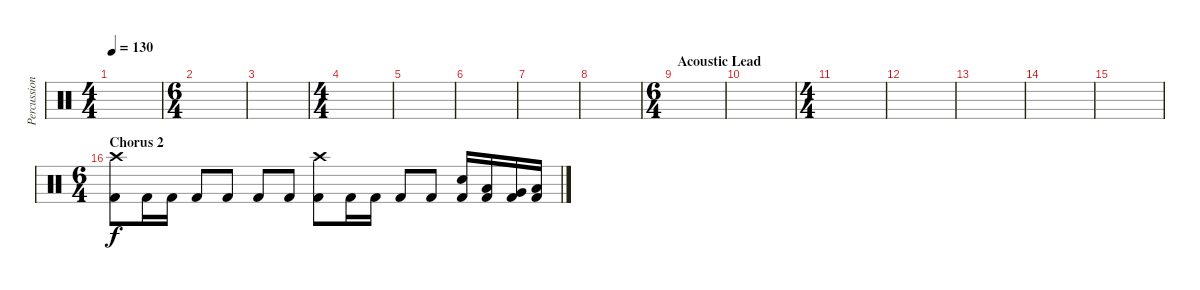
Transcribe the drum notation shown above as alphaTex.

\track ("Percussion" "Percussion") {instrument percussion}
\staff {score}
\articulation defaults
\ts (4 4)
\tempo 130
\clef neutral
\ks c
|
\ts (6 4)
|
|
\ts (4 4)
|
|
|
|
|
\ts (6 4)
\section ("" "Acoustic Lead")
|
|
\ts (4 4)
|
|
|
|
|
\ts (6 4)
\section ("" "Chorus 2")
("Crash high (hit)" "Kick (hit) 2").8 "Kick (hit) 2".16 "Kick (hit) 2".16 "Kick (hit) 2".8 "Kick (hit) 2".8 "Kick (hit) 2".8 "Kick (hit) 2".8 ("Crash high (hit)" "Kick (hit) 2").8 "Kick (hit) 2".16 "Kick (hit) 2".16 "Kick (hit) 2".8 "Kick (hit) 2".8 ("Electric Snare (hit)" "Kick (hit) 2").16 ("Low Tom (hit)" "Kick (hit) 2").16 ("Very Low Tom (hit)" "Kick (hit) 2").16 ("Low Floor Tom (hit)" "Kick (hit) 2").16
